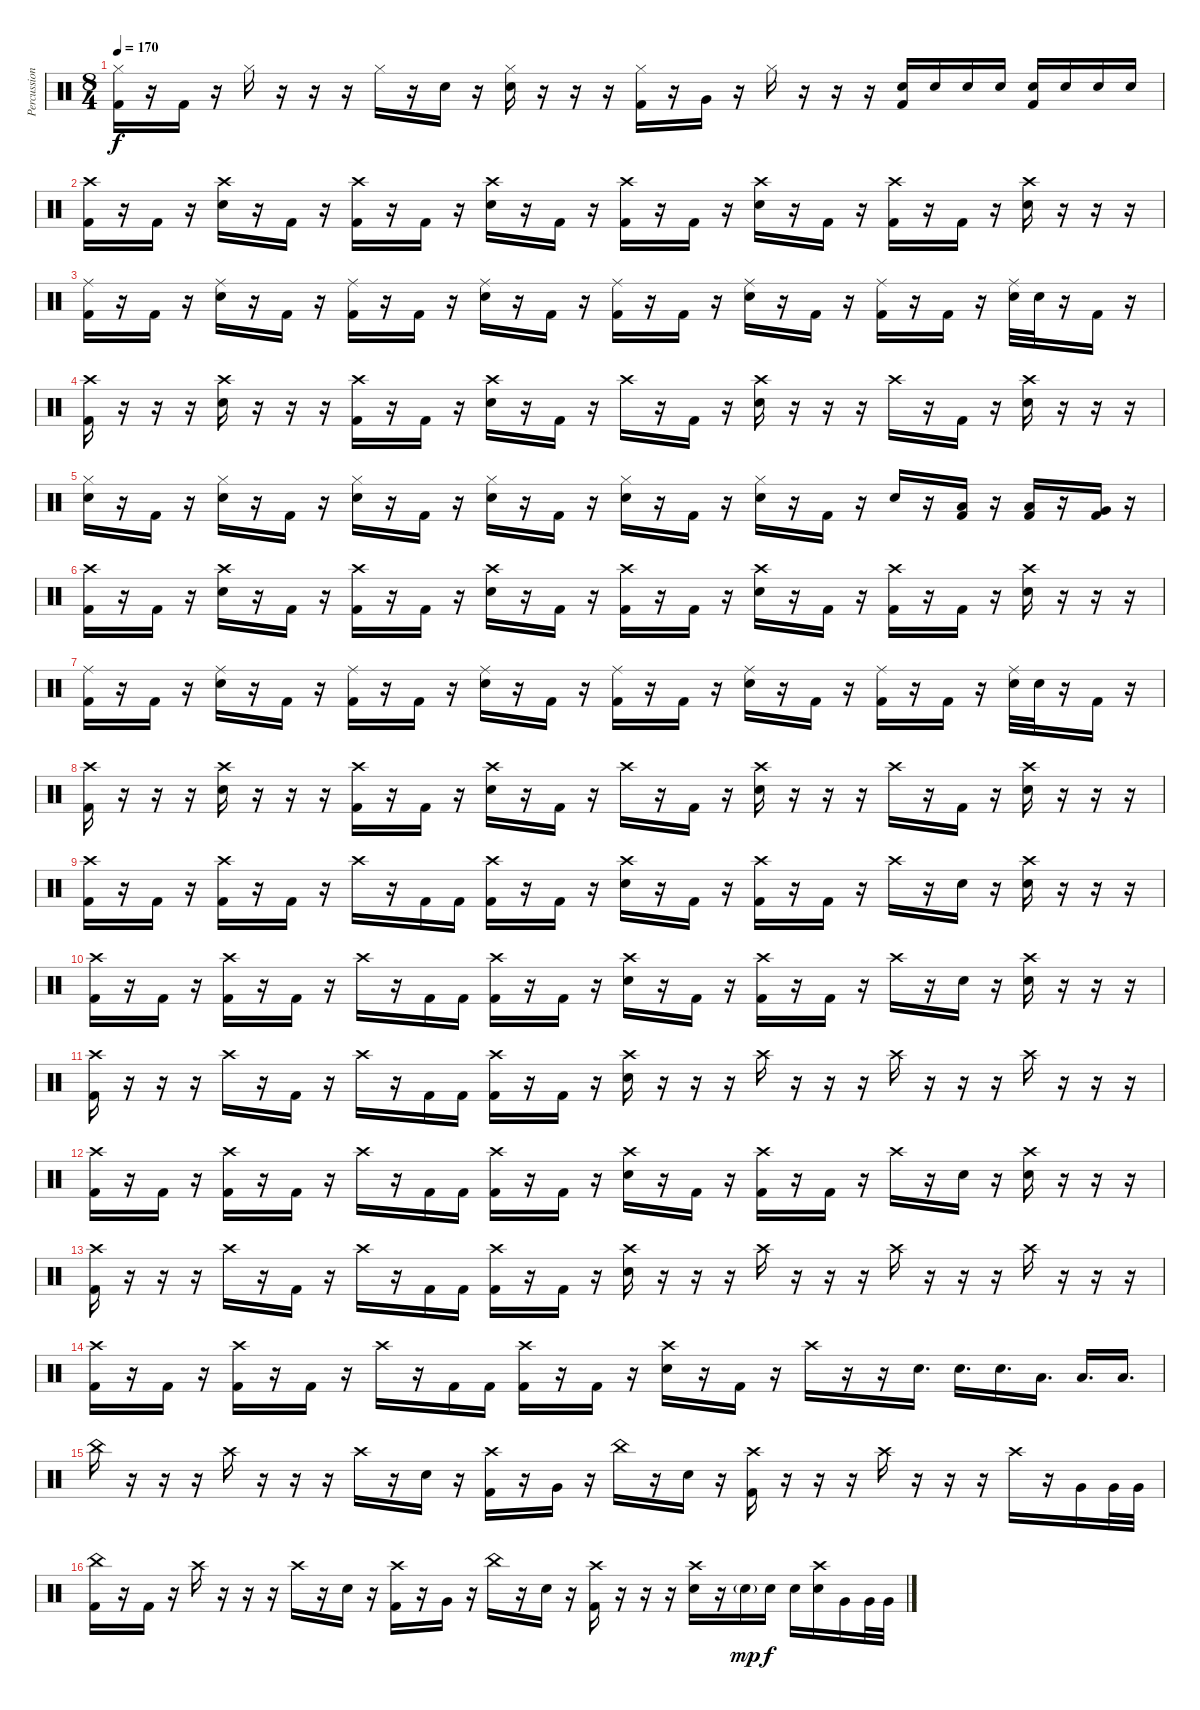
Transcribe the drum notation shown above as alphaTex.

\track ("Percussion" "Percussion") {instrument percussion}
\staff {score}
\articulation defaults
\ts (8 4)
\tempo 170
\clef neutral
\ks c
("Kick (hit) 2" "Hi-Hat (closed)").16{dy f} r.16 "Kick (hit) 2".16 r.16 "Hi-Hat (closed)".16 r.16 r.16 r.16 "Hi-Hat (closed)".16 r.16 "Snare (hit) 2".16 r.16 ("Snare (hit) 2" "Hi-Hat (closed)").16 r.16 r.16 r.16 ("Kick (hit) 2" "Hi-Hat (closed)").16 r.16 "Very Low Tom (hit)".16 r.16 "Hi-Hat (closed)".16 r.16 r.16 r.16 ("Kick (hit) 2" "Snare (hit) 2").16 "Snare (hit) 2".16 "Snare (hit) 2".16 "Snare (hit) 2".16 ("Kick (hit) 2" "Snare (hit) 2").16 "Snare (hit) 2".16 "Snare (hit) 2".16 "Snare (hit) 2".16 |
("Kick (hit) 2" "Crash high (hit)").16 r.16 "Kick (hit) 2".16 r.16 ("Snare (hit) 2" "Crash high (hit)").16 r.16 "Kick (hit) 2".16 r.16 ("Kick (hit) 2" "Crash high (hit)").16 r.16 "Kick (hit) 2".16 r.16 ("Snare (hit) 2" "Crash high (hit)").16 r.16 "Kick (hit) 2".16 r.16 ("Kick (hit) 2" "Crash high (hit)").16 r.16 "Kick (hit) 2".16 r.16 ("Snare (hit) 2" "Crash high (hit)").16 r.16 "Kick (hit) 2".16 r.16 ("Kick (hit) 2" "Crash high (hit)").16 r.16 "Kick (hit) 2".16 r.16 ("Snare (hit) 2" "Crash high (hit)").16 r.16 r.16 r.16 |
("Kick (hit) 2" "Ride (middle)").16 r.16 "Kick (hit) 2".16 r.16 ("Snare (hit) 2" "Ride (middle)").16 r.16 "Kick (hit) 2".16 r.16 ("Kick (hit) 2" "Ride (middle)").16 r.16 "Kick (hit) 2".16 r.16 ("Snare (hit) 2" "Ride (middle)").16 r.16 "Kick (hit) 2".16 r.16 ("Kick (hit) 2" "Ride (middle)").16 r.16 "Kick (hit) 2".16 r.16 ("Snare (hit) 2" "Ride (middle)").16 r.16 "Kick (hit) 2".16 r.16 ("Kick (hit) 2" "Ride (middle)").16 r.16 "Kick (hit) 2".16 r.16 ("Snare (hit) 2" "Ride (middle)").32 "Snare (hit) 2".32 r.16 "Kick (hit) 2".16 r.16 |
("Kick (hit) 2" "Crash high (hit)").16 r.16 r.16 r.16 ("Snare (hit) 2" "Crash high (hit)").16 r.16 r.16 r.16 ("Kick (hit) 2" "Crash high (hit)").16 r.16 "Kick (hit) 2".16 r.16 ("Snare (hit) 2" "Crash high (hit)").16 r.16 "Kick (hit) 2".16 r.16 "Crash high (hit)".16 r.16 "Kick (hit) 2".16 r.16 ("Snare (hit) 2" "Crash high (hit)").16 r.16 r.16 r.16 "Crash high (hit)".16 r.16 "Kick (hit) 2".16 r.16 ("Snare (hit) 2" "Crash high (hit)").16 r.16 r.16 r.16 |
("Snare (hit) 2" "Hi-Hat (closed)").16 r.16 "Kick (hit) 2".16 r.16 ("Snare (hit) 2" "Hi-Hat (closed)").16 r.16 "Kick (hit) 2".16 r.16 ("Snare (hit) 2" "Hi-Hat (closed)").16 r.16 "Kick (hit) 2".16 r.16 ("Snare (hit) 2" "Hi-Hat (closed)").16 r.16 "Kick (hit) 2".16 r.16 ("Snare (hit) 2" "Hi-Hat (closed)").16 r.16 "Kick (hit) 2".16 r.16 ("Snare (hit) 2" "Hi-Hat (closed)").16 r.16 "Kick (hit) 2".16 r.16 "Snare (hit) 2".16 r.16 ("Kick (hit) 2" "Low Tom (hit)").16 r.16 ("Kick (hit) 2" "Low Tom (hit)").16 r.16 ("Kick (hit) 2" "Very Low Tom (hit)").16 r.16 |
("Kick (hit) 2" "Crash high (hit)").16 r.16 "Kick (hit) 2".16 r.16 ("Snare (hit) 2" "Crash high (hit)").16 r.16 "Kick (hit) 2".16 r.16 ("Kick (hit) 2" "Crash high (hit)").16 r.16 "Kick (hit) 2".16 r.16 ("Snare (hit) 2" "Crash high (hit)").16 r.16 "Kick (hit) 2".16 r.16 ("Kick (hit) 2" "Crash high (hit)").16 r.16 "Kick (hit) 2".16 r.16 ("Snare (hit) 2" "Crash high (hit)").16 r.16 "Kick (hit) 2".16 r.16 ("Kick (hit) 2" "Crash high (hit)").16 r.16 "Kick (hit) 2".16 r.16 ("Snare (hit) 2" "Crash high (hit)").16 r.16 r.16 r.16 |
("Kick (hit) 2" "Ride (middle)").16 r.16 "Kick (hit) 2".16 r.16 ("Snare (hit) 2" "Ride (middle)").16 r.16 "Kick (hit) 2".16 r.16 ("Kick (hit) 2" "Ride (middle)").16 r.16 "Kick (hit) 2".16 r.16 ("Snare (hit) 2" "Ride (middle)").16 r.16 "Kick (hit) 2".16 r.16 ("Kick (hit) 2" "Ride (middle)").16 r.16 "Kick (hit) 2".16 r.16 ("Snare (hit) 2" "Ride (middle)").16 r.16 "Kick (hit) 2".16 r.16 ("Kick (hit) 2" "Ride (middle)").16 r.16 "Kick (hit) 2".16 r.16 ("Snare (hit) 2" "Ride (middle)").32 "Snare (hit) 2".32 r.16 "Kick (hit) 2".16 r.16 |
("Kick (hit) 2" "Crash high (hit)").16 r.16 r.16 r.16 ("Snare (hit) 2" "Crash high (hit)").16 r.16 r.16 r.16 ("Kick (hit) 2" "Crash high (hit)").16 r.16 "Kick (hit) 2".16 r.16 ("Snare (hit) 2" "Crash high (hit)").16 r.16 "Kick (hit) 2".16 r.16 "Crash high (hit)".16 r.16 "Kick (hit) 2".16 r.16 ("Snare (hit) 2" "Crash high (hit)").16 r.16 r.16 r.16 "Crash high (hit)".16 r.16 "Kick (hit) 2".16 r.16 ("Snare (hit) 2" "Crash high (hit)").16 r.16 r.16 r.16 |
("Kick (hit) 2" "Crash high (hit)").16 r.16 "Kick (hit) 2".16 r.16 ("Kick (hit) 2" "Crash high (hit)").16 r.16 "Kick (hit) 2".16 r.16 "Crash high (hit)".16 r.16 "Kick (hit) 2".16 "Kick (hit) 2".16 ("Kick (hit) 2" "Crash high (hit)").16 r.16 "Kick (hit) 2".16 r.16 ("Snare (hit) 2" "Crash high (hit)").16 r.16 "Kick (hit) 2".16 r.16 ("Kick (hit) 2" "Crash high (hit)").16 r.16 "Kick (hit) 2".16 r.16 "Crash high (hit)".16 r.16 "Snare (hit) 2".16 r.16 ("Snare (hit) 2" "Crash high (hit)").16 r.16 r.16 r.16 |
("Kick (hit) 2" "Crash high (hit)").16 r.16 "Kick (hit) 2".16 r.16 ("Kick (hit) 2" "Crash high (hit)").16 r.16 "Kick (hit) 2".16 r.16 "Crash high (hit)".16 r.16 "Kick (hit) 2".16 "Kick (hit) 2".16 ("Kick (hit) 2" "Crash high (hit)").16 r.16 "Kick (hit) 2".16 r.16 ("Snare (hit) 2" "Crash high (hit)").16 r.16 "Kick (hit) 2".16 r.16 ("Kick (hit) 2" "Crash high (hit)").16 r.16 "Kick (hit) 2".16 r.16 "Crash high (hit)".16 r.16 "Snare (hit) 2".16 r.16 ("Snare (hit) 2" "Crash high (hit)").16 r.16 r.16 r.16 |
("Kick (hit) 2" "Crash high (hit)").16 r.16 r.16 r.16 "Crash high (hit)".16 r.16 "Kick (hit) 2".16 r.16 "Crash high (hit)".16 r.16 "Kick (hit) 2".16 "Kick (hit) 2".16 ("Kick (hit) 2" "Crash high (hit)").16 r.16 "Kick (hit) 2".16 r.16 ("Snare (hit) 2" "Crash high (hit)").16 r.16 r.16 r.16 "Crash high (hit)".16 r.16 r.16 r.16 "Crash high (hit)".16 r.16 r.16 r.16 "Crash high (hit)".16 r.16 r.16 r.16 |
("Kick (hit) 2" "Crash high (hit)").16 r.16 "Kick (hit) 2".16 r.16 ("Kick (hit) 2" "Crash high (hit)").16 r.16 "Kick (hit) 2".16 r.16 "Crash high (hit)".16 r.16 "Kick (hit) 2".16 "Kick (hit) 2".16 ("Kick (hit) 2" "Crash high (hit)").16 r.16 "Kick (hit) 2".16 r.16 ("Snare (hit) 2" "Crash high (hit)").16 r.16 "Kick (hit) 2".16 r.16 ("Kick (hit) 2" "Crash high (hit)").16 r.16 "Kick (hit) 2".16 r.16 "Crash high (hit)".16 r.16 "Snare (hit) 2".16 r.16 ("Snare (hit) 2" "Crash high (hit)").16 r.16 r.16 r.16 |
("Kick (hit) 2" "Crash high (hit)").16 r.16 r.16 r.16 "Crash high (hit)".16 r.16 "Kick (hit) 2".16 r.16 "Crash high (hit)".16 r.16 "Kick (hit) 2".16 "Kick (hit) 2".16 ("Kick (hit) 2" "Crash high (hit)").16 r.16 "Kick (hit) 2".16 r.16 ("Snare (hit) 2" "Crash high (hit)").16 r.16 r.16 r.16 "Crash high (hit)".16 r.16 r.16 r.16 "Crash high (hit)".16 r.16 r.16 r.16 "Crash high (hit)".16 r.16 r.16 r.16 |
("Kick (hit) 2" "Crash high (hit)").16 r.16 "Kick (hit) 2".16 r.16 ("Kick (hit) 2" "Crash high (hit)").16 r.16 "Kick (hit) 2".16 r.16 "Crash high (hit)".16 r.16 "Kick (hit) 2".16 "Kick (hit) 2".16 ("Kick (hit) 2" "Crash high (hit)").16 r.16 "Kick (hit) 2".16 r.16 ("Snare (hit) 2" "Crash high (hit)").16 r.16 "Kick (hit) 2".16 r.16 "Crash high (hit)".16 r.16 r.16 "Snare (hit) 2".16{d} "Snare (hit) 2".16{d} "Snare (hit) 2".16{d} "Low Tom (hit)".16{d} "Low Tom (hit)".16{d} "Low Tom (hit)".16{d} |
"China (hit)".16 r.16 r.16 r.16 "Crash high (hit)".16 r.16 r.16 r.16 "Crash high (hit)".16 r.16 "Snare (hit) 2".16 r.16 ("Kick (hit) 2" "Crash high (hit)").16 r.16 "Very Low Tom (hit)".16 r.16 "China (hit)".16 r.16 "Snare (hit) 2".16 r.16 ("Kick (hit) 2" "Crash high (hit)").16 r.16 r.16 r.16 "Crash high (hit)".16 r.16 r.16 r.16 "Crash high (hit)".16 r.16 "Very Low Tom (hit)".16 "Very Low Tom (hit)".32 "Very Low Tom (hit)".32 |
("Kick (hit) 2" "China (hit)").16 r.16 "Kick (hit) 2".16 r.16 "Crash high (hit)".16 r.16 r.16 r.16 "Crash high (hit)".16 r.16 "Snare (hit) 2".16 r.16 ("Kick (hit) 2" "Crash high (hit)").16 r.16 "Very Low Tom (hit)".16 r.16 "China (hit)".16 r.16 "Snare (hit) 2".16 r.16 ("Kick (hit) 2" "Crash high (hit)").16 r.16 r.16 r.16 ("Snare (hit) 2" "Crash high (hit)").16 r.16 "Snare (hit) 2"{g}.16{dy mp} "Snare (hit) 2".16{dy f} "Snare (hit) 2".16 ("Snare (hit) 2" "Crash high (hit)").16 "Very Low Tom (hit)".16 "Very Low Tom (hit)".32 "Very Low Tom (hit)".32
